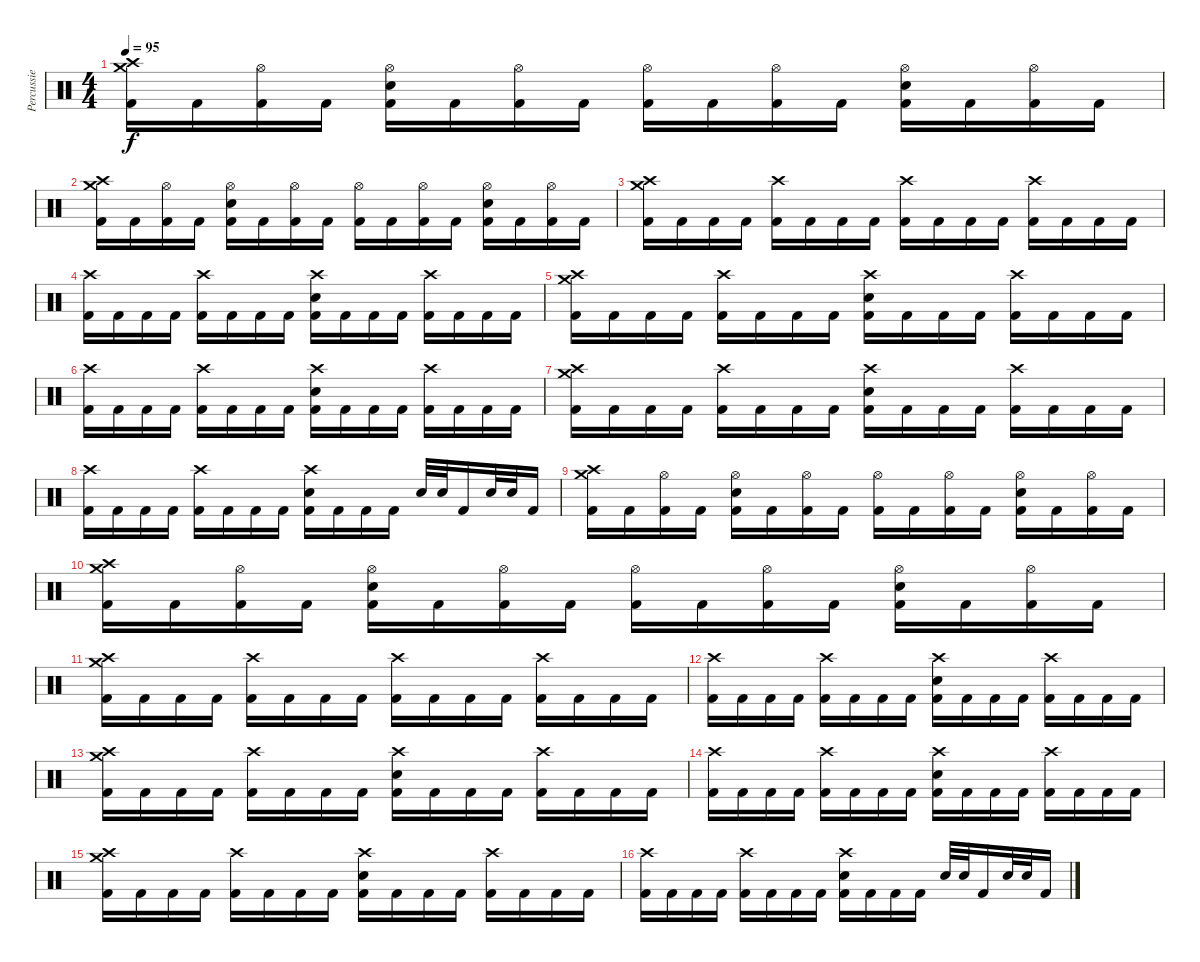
\track ("Percussie" "Percussie") {instrument percussion}
\staff {score}
\articulation defaults
\ts (4 4)
\tempo 95
\clef neutral
\ks c
("Crash medium (hit)" "Crash high (hit)" "Kick (hit) 2").16{dy f} "Kick (hit) 2".16 ("Hi-Hat (open)" "Kick (hit) 2").16 "Kick (hit) 2".16 ("Hi-Hat (open)" "Electric Snare (hit)" "Kick (hit) 2").16 "Kick (hit) 2".16 ("Hi-Hat (open)" "Kick (hit) 2").16 "Kick (hit) 2".16 ("Hi-Hat (open)" "Kick (hit) 2").16 "Kick (hit) 2".16 ("Hi-Hat (open)" "Kick (hit) 2").16 "Kick (hit) 2".16 ("Hi-Hat (open)" "Electric Snare (hit)" "Kick (hit) 2").16 "Kick (hit) 2".16 ("Hi-Hat (open)" "Kick (hit) 2").16 "Kick (hit) 2".16 |
("Crash medium (hit)" "Crash high (hit)" "Kick (hit) 2").16 "Kick (hit) 2".16 ("Hi-Hat (open)" "Kick (hit) 2").16 "Kick (hit) 2".16 ("Hi-Hat (open)" "Electric Snare (hit)" "Kick (hit) 2").16 "Kick (hit) 2".16 ("Hi-Hat (open)" "Kick (hit) 2").16 "Kick (hit) 2".16 ("Hi-Hat (open)" "Kick (hit) 2").16 "Kick (hit) 2".16 ("Hi-Hat (open)" "Kick (hit) 2").16 "Kick (hit) 2".16 ("Hi-Hat (open)" "Electric Snare (hit)" "Kick (hit) 2").16 "Kick (hit) 2".16 ("Hi-Hat (open)" "Kick (hit) 2").16 "Kick (hit) 2".16 |
("Crash medium (hit)" "Crash high (hit)" "Kick (hit) 2").16 "Kick (hit) 2".16 "Kick (hit) 2".16 "Kick (hit) 2".16 ("Crash high (hit)" "Kick (hit) 2").16 "Kick (hit) 2".16 "Kick (hit) 2".16 "Kick (hit) 2".16 ("Crash high (hit)" "Kick (hit) 2").16 "Kick (hit) 2".16 "Kick (hit) 2".16 "Kick (hit) 2".16 ("Crash high (hit)" "Kick (hit) 2").16 "Kick (hit) 2".16 "Kick (hit) 2".16 "Kick (hit) 2".16 |
("Crash high (hit)" "Kick (hit) 2").16 "Kick (hit) 2".16 "Kick (hit) 2".16 "Kick (hit) 2".16 ("Crash high (hit)" "Kick (hit) 2").16 "Kick (hit) 2".16 "Kick (hit) 2".16 "Kick (hit) 2".16 ("Crash high (hit)" "Electric Snare (hit)" "Kick (hit) 2").16 "Kick (hit) 2".16 "Kick (hit) 2".16 "Kick (hit) 2".16 ("Crash high (hit)" "Kick (hit) 2").16 "Kick (hit) 2".16 "Kick (hit) 2".16 "Kick (hit) 2".16 |
("Crash medium (hit)" "Crash high (hit)" "Kick (hit) 2").16 "Kick (hit) 2".16 "Kick (hit) 2".16 "Kick (hit) 2".16 ("Crash high (hit)" "Kick (hit) 2").16 "Kick (hit) 2".16 "Kick (hit) 2".16 "Kick (hit) 2".16 ("Crash high (hit)" "Electric Snare (hit)" "Kick (hit) 2").16 "Kick (hit) 2".16 "Kick (hit) 2".16 "Kick (hit) 2".16 ("Crash high (hit)" "Kick (hit) 2").16 "Kick (hit) 2".16 "Kick (hit) 2".16 "Kick (hit) 2".16 |
("Crash high (hit)" "Kick (hit) 2").16 "Kick (hit) 2".16 "Kick (hit) 2".16 "Kick (hit) 2".16 ("Crash high (hit)" "Kick (hit) 2").16 "Kick (hit) 2".16 "Kick (hit) 2".16 "Kick (hit) 2".16 ("Crash high (hit)" "Electric Snare (hit)" "Kick (hit) 2").16 "Kick (hit) 2".16 "Kick (hit) 2".16 "Kick (hit) 2".16 ("Crash high (hit)" "Kick (hit) 2").16 "Kick (hit) 2".16 "Kick (hit) 2".16 "Kick (hit) 2".16 |
("Crash medium (hit)" "Crash high (hit)" "Kick (hit) 2").16 "Kick (hit) 2".16 "Kick (hit) 2".16 "Kick (hit) 2".16 ("Crash high (hit)" "Kick (hit) 2").16 "Kick (hit) 2".16 "Kick (hit) 2".16 "Kick (hit) 2".16 ("Crash high (hit)" "Electric Snare (hit)" "Kick (hit) 2").16 "Kick (hit) 2".16 "Kick (hit) 2".16 "Kick (hit) 2".16 ("Crash high (hit)" "Kick (hit) 2").16 "Kick (hit) 2".16 "Kick (hit) 2".16 "Kick (hit) 2".16 |
("Crash high (hit)" "Kick (hit) 2").16 "Kick (hit) 2".16 "Kick (hit) 2".16 "Kick (hit) 2".16 ("Crash high (hit)" "Kick (hit) 2").16 "Kick (hit) 2".16 "Kick (hit) 2".16 "Kick (hit) 2".16 ("Crash high (hit)" "Electric Snare (hit)" "Kick (hit) 2").16 "Kick (hit) 2".16 "Kick (hit) 2".16 "Kick (hit) 2".16 "Electric Snare (hit)".32 "Electric Snare (hit)".32 "Kick (hit) 2".16 "Electric Snare (hit)".32 "Electric Snare (hit)".32 "Kick (hit) 2".16 |
("Crash medium (hit)" "Crash high (hit)" "Kick (hit) 2").16 "Kick (hit) 2".16 ("Hi-Hat (open)" "Kick (hit) 2").16 "Kick (hit) 2".16 ("Hi-Hat (open)" "Electric Snare (hit)" "Kick (hit) 2").16 "Kick (hit) 2".16 ("Hi-Hat (open)" "Kick (hit) 2").16 "Kick (hit) 2".16 ("Hi-Hat (open)" "Kick (hit) 2").16 "Kick (hit) 2".16 ("Hi-Hat (open)" "Kick (hit) 2").16 "Kick (hit) 2".16 ("Hi-Hat (open)" "Electric Snare (hit)" "Kick (hit) 2").16 "Kick (hit) 2".16 ("Hi-Hat (open)" "Kick (hit) 2").16 "Kick (hit) 2".16 |
("Crash medium (hit)" "Crash high (hit)" "Kick (hit) 2").16 "Kick (hit) 2".16 ("Hi-Hat (open)" "Kick (hit) 2").16 "Kick (hit) 2".16 ("Hi-Hat (open)" "Electric Snare (hit)" "Kick (hit) 2").16 "Kick (hit) 2".16 ("Hi-Hat (open)" "Kick (hit) 2").16 "Kick (hit) 2".16 ("Hi-Hat (open)" "Kick (hit) 2").16 "Kick (hit) 2".16 ("Hi-Hat (open)" "Kick (hit) 2").16 "Kick (hit) 2".16 ("Hi-Hat (open)" "Electric Snare (hit)" "Kick (hit) 2").16 "Kick (hit) 2".16 ("Hi-Hat (open)" "Kick (hit) 2").16 "Kick (hit) 2".16 |
("Crash medium (hit)" "Crash high (hit)" "Kick (hit) 2").16 "Kick (hit) 2".16 "Kick (hit) 2".16 "Kick (hit) 2".16 ("Crash high (hit)" "Kick (hit) 2").16 "Kick (hit) 2".16 "Kick (hit) 2".16 "Kick (hit) 2".16 ("Crash high (hit)" "Kick (hit) 2").16 "Kick (hit) 2".16 "Kick (hit) 2".16 "Kick (hit) 2".16 ("Crash high (hit)" "Kick (hit) 2").16 "Kick (hit) 2".16 "Kick (hit) 2".16 "Kick (hit) 2".16 |
("Crash high (hit)" "Kick (hit) 2").16 "Kick (hit) 2".16 "Kick (hit) 2".16 "Kick (hit) 2".16 ("Crash high (hit)" "Kick (hit) 2").16 "Kick (hit) 2".16 "Kick (hit) 2".16 "Kick (hit) 2".16 ("Crash high (hit)" "Electric Snare (hit)" "Kick (hit) 2").16 "Kick (hit) 2".16 "Kick (hit) 2".16 "Kick (hit) 2".16 ("Crash high (hit)" "Kick (hit) 2").16 "Kick (hit) 2".16 "Kick (hit) 2".16 "Kick (hit) 2".16 |
("Crash medium (hit)" "Crash high (hit)" "Kick (hit) 2").16 "Kick (hit) 2".16 "Kick (hit) 2".16 "Kick (hit) 2".16 ("Crash high (hit)" "Kick (hit) 2").16 "Kick (hit) 2".16 "Kick (hit) 2".16 "Kick (hit) 2".16 ("Crash high (hit)" "Electric Snare (hit)" "Kick (hit) 2").16 "Kick (hit) 2".16 "Kick (hit) 2".16 "Kick (hit) 2".16 ("Crash high (hit)" "Kick (hit) 2").16 "Kick (hit) 2".16 "Kick (hit) 2".16 "Kick (hit) 2".16 |
("Crash high (hit)" "Kick (hit) 2").16 "Kick (hit) 2".16 "Kick (hit) 2".16 "Kick (hit) 2".16 ("Crash high (hit)" "Kick (hit) 2").16 "Kick (hit) 2".16 "Kick (hit) 2".16 "Kick (hit) 2".16 ("Crash high (hit)" "Electric Snare (hit)" "Kick (hit) 2").16 "Kick (hit) 2".16 "Kick (hit) 2".16 "Kick (hit) 2".16 ("Crash high (hit)" "Kick (hit) 2").16 "Kick (hit) 2".16 "Kick (hit) 2".16 "Kick (hit) 2".16 |
("Crash medium (hit)" "Crash high (hit)" "Kick (hit) 2").16 "Kick (hit) 2".16 "Kick (hit) 2".16 "Kick (hit) 2".16 ("Crash high (hit)" "Kick (hit) 2").16 "Kick (hit) 2".16 "Kick (hit) 2".16 "Kick (hit) 2".16 ("Crash high (hit)" "Electric Snare (hit)" "Kick (hit) 2").16 "Kick (hit) 2".16 "Kick (hit) 2".16 "Kick (hit) 2".16 ("Crash high (hit)" "Kick (hit) 2").16 "Kick (hit) 2".16 "Kick (hit) 2".16 "Kick (hit) 2".16 |
("Crash high (hit)" "Kick (hit) 2").16 "Kick (hit) 2".16 "Kick (hit) 2".16 "Kick (hit) 2".16 ("Crash high (hit)" "Kick (hit) 2").16 "Kick (hit) 2".16 "Kick (hit) 2".16 "Kick (hit) 2".16 ("Crash high (hit)" "Electric Snare (hit)" "Kick (hit) 2").16 "Kick (hit) 2".16 "Kick (hit) 2".16 "Kick (hit) 2".16 "Electric Snare (hit)".32 "Electric Snare (hit)".32 "Kick (hit) 2".16 "Electric Snare (hit)".32 "Electric Snare (hit)".32 "Kick (hit) 2".16
